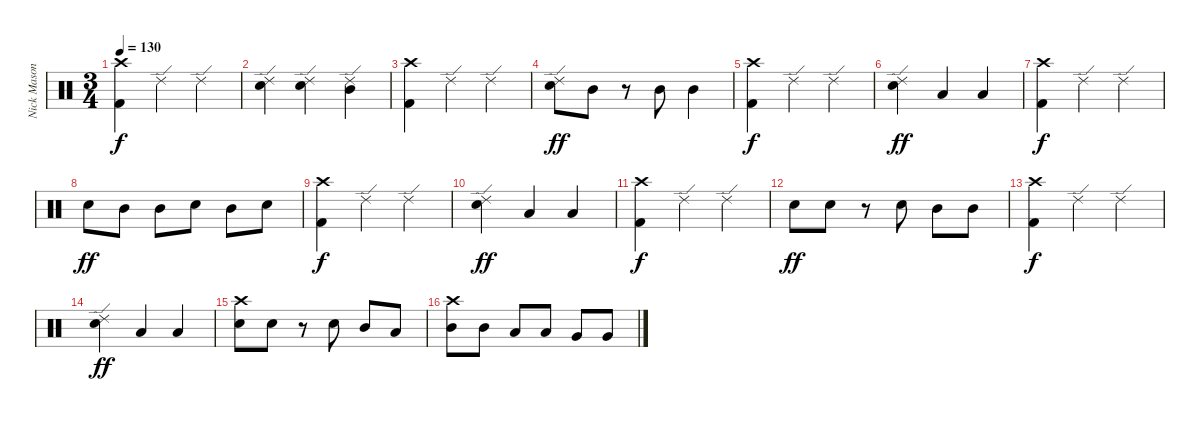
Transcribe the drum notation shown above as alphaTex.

\track ("Nick Mason" "Nick Mason") {instrument percussion}
\staff {score}
\articulation defaults
\ts (3 4)
\tempo 130
\clef neutral
\ks c
("Crash high (hit)" "Kick (hit) 2").4{dy f} "Ride (edge) 2".4 "Ride (edge) 2".4 |
("Ride (edge) 2" "Snare (hit) 2").4 ("Ride (edge) 2" "Snare (hit) 2").4 ("Ride (edge) 2" "Mid Tom (hit)").4 |
("Crash high (hit)" "Kick (hit) 2").4 "Ride (edge) 2".4 "Ride (edge) 2".4 |
("Ride (edge) 2" "Snare (hit) 2").8{dy ff} "Mid Tom (hit)".8 r.8 "Mid Tom (hit)".8 "Mid Tom (hit)".4 |
("Crash high (hit)" "Kick (hit) 2").4{dy f} "Ride (edge) 2".4 "Ride (edge) 2".4 |
("Ride (edge) 2" "Snare (hit) 2").4{dy ff} "Low Tom (hit)".4 "Low Tom (hit)".4 |
("Crash high (hit)" "Kick (hit) 2").4{dy f} "Ride (edge) 2".4 "Ride (edge) 2".4 |
"Snare (hit) 2".8{dy ff} "Mid Tom (hit)".8 "Mid Tom (hit)".8 "Snare (hit) 2".8 "Mid Tom (hit)".8 "Snare (hit) 2".8 |
("Crash high (hit)" "Kick (hit) 2").4{dy f} "Ride (edge) 2".4 "Ride (edge) 2".4 |
("Ride (edge) 2" "Snare (hit) 2").4{dy ff} "Low Tom (hit)".4 "Low Tom (hit)".4 |
("Crash high (hit)" "Kick (hit) 2").4{dy f} "Ride (edge) 2".4 "Ride (edge) 2".4 |
"Snare (hit) 2".8{dy ff} "Snare (hit) 2".8 r.8 "Snare (hit) 2".8 "Mid Tom (hit)".8 "Mid Tom (hit)".8 |
("Crash high (hit)" "Kick (hit) 2").4{dy f} "Ride (edge) 2".4 "Ride (edge) 2".4 |
("Ride (edge) 2" "Snare (hit) 2").4{dy ff} "Low Tom (hit)".4 "Low Tom (hit)".4 |
("Snare (hit) 2" "Crash high (hit)").8 "Snare (hit) 2".8 r.8 "Snare (hit) 2".8 "Mid Tom (hit)".8 "Low Tom (hit)".8 |
("Crash high (hit)" "Mid Tom (hit)").8 "Mid Tom (hit)".8 "Low Tom (hit)".8 "Low Tom (hit)".8 "Very Low Tom (hit)".8 "Very Low Tom (hit)".8
